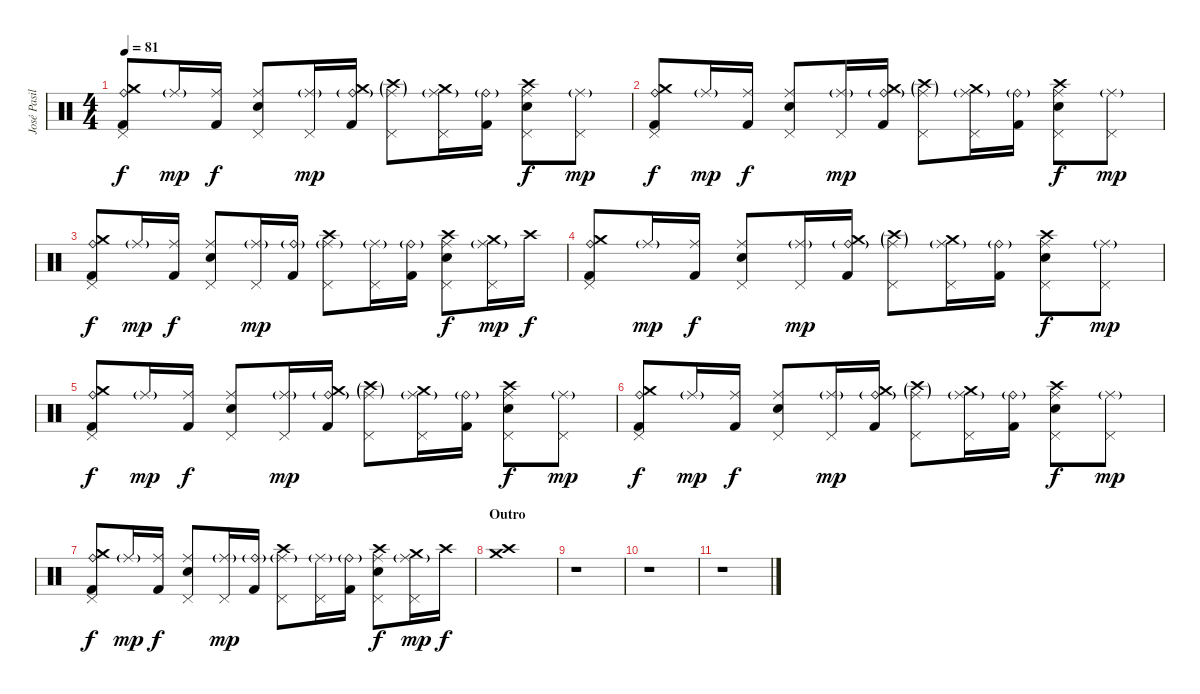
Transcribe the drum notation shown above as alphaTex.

\track ("José Pasillas [Drums]" "José Pasil") {instrument percussion}
\staff {score}
\articulation defaults
\ts (4 4)
\tempo 81
\clef neutral
\ks c
("Kick (hit) 2" "Crash medium (hit)" "Ride (bell)" "Pedal Hi-Hat (hit)").8{dy f} "Ride (middle)"{g}.16{dy mp} ("Kick (hit) 2" "Ride (middle)").16{dy f} ("Electric Snare (hit)" "Ride (middle)" "Pedal Hi-Hat (hit)").8 ("Ride (middle)"{g} "Pedal Hi-Hat (hit)").16{dy mp} ("Kick (hit) 2" "Crash medium (hit)" "Ride (bell)"{g}).16 ("Crash high (hit)"{g} "Ride (middle)"{g} "Pedal Hi-Hat (hit)").8 ("Crash medium (hit)" "Ride (middle)"{g} "Pedal Hi-Hat (hit)").16 ("Kick (hit) 2" "Ride (bell)"{g}).16 ("Electric Snare (hit)" "Crash high (hit)" "Ride (middle)" "Pedal Hi-Hat (hit)").8{dy f} ("Ride (middle)"{g} "Pedal Hi-Hat (hit)").8{dy mp} |
("Kick (hit) 2" "Crash medium (hit)" "Ride (bell)" "Pedal Hi-Hat (hit)").8{dy f} "Ride (middle)"{g}.16{dy mp} ("Kick (hit) 2" "Ride (middle)").16{dy f} ("Electric Snare (hit)" "Ride (middle)" "Pedal Hi-Hat (hit)").8 ("Ride (middle)"{g} "Pedal Hi-Hat (hit)").16{dy mp} ("Kick (hit) 2" "Crash medium (hit)" "Ride (bell)"{g}).16 ("Crash high (hit)"{g} "Ride (middle)"{g} "Pedal Hi-Hat (hit)").8 ("Crash medium (hit)" "Ride (middle)"{g} "Pedal Hi-Hat (hit)").16 ("Kick (hit) 2" "Ride (bell)"{g}).16 ("Electric Snare (hit)" "Crash high (hit)" "Ride (middle)" "Pedal Hi-Hat (hit)").8{dy f} ("Ride (middle)"{g} "Pedal Hi-Hat (hit)").8{dy mp} |
("Kick (hit) 2" "Crash medium (hit)" "Ride (bell)" "Pedal Hi-Hat (hit)").8{dy f} "Ride (middle)"{g}.16{dy mp} ("Kick (hit) 2" "Ride (middle)").16{dy f} ("Electric Snare (hit)" "Ride (middle)" "Pedal Hi-Hat (hit)").8 ("Ride (middle)"{g} "Pedal Hi-Hat (hit)").16{dy mp} ("Kick (hit) 2" "Ride (bell)"{g}).16 ("Crash high (hit)" "Ride (middle)"{g} "Pedal Hi-Hat (hit)").8 ("Ride (middle)"{g} "Pedal Hi-Hat (hit)").16 ("Kick (hit) 2" "Ride (bell)"{g}).16 ("Electric Snare (hit)" "Crash high (hit)" "Ride (middle)" "Pedal Hi-Hat (hit)").8{dy f} ("Crash medium (hit)" "Ride (middle)"{g} "Pedal Hi-Hat (hit)").16{dy mp} "Crash high (hit)".16{dy f} |
("Kick (hit) 2" "Crash medium (hit)" "Ride (bell)" "Pedal Hi-Hat (hit)").8 "Ride (middle)"{g}.16{dy mp} ("Kick (hit) 2" "Ride (middle)").16{dy f} ("Electric Snare (hit)" "Ride (middle)" "Pedal Hi-Hat (hit)").8 ("Ride (middle)"{g} "Pedal Hi-Hat (hit)").16{dy mp} ("Kick (hit) 2" "Crash medium (hit)" "Ride (bell)"{g}).16 ("Crash high (hit)"{g} "Ride (middle)"{g} "Pedal Hi-Hat (hit)").8 ("Crash medium (hit)" "Ride (middle)"{g} "Pedal Hi-Hat (hit)").16 ("Kick (hit) 2" "Ride (bell)"{g}).16 ("Electric Snare (hit)" "Crash high (hit)" "Ride (middle)" "Pedal Hi-Hat (hit)").8{dy f} ("Ride (middle)"{g} "Pedal Hi-Hat (hit)").8{dy mp} |
("Kick (hit) 2" "Crash medium (hit)" "Ride (bell)" "Pedal Hi-Hat (hit)").8{dy f} "Ride (middle)"{g}.16{dy mp} ("Kick (hit) 2" "Ride (middle)").16{dy f} ("Electric Snare (hit)" "Ride (middle)" "Pedal Hi-Hat (hit)").8 ("Ride (middle)"{g} "Pedal Hi-Hat (hit)").16{dy mp} ("Kick (hit) 2" "Crash medium (hit)" "Ride (bell)"{g}).16 ("Crash high (hit)"{g} "Ride (middle)"{g} "Pedal Hi-Hat (hit)").8 ("Crash medium (hit)" "Ride (middle)"{g} "Pedal Hi-Hat (hit)").16 ("Kick (hit) 2" "Ride (bell)"{g}).16 ("Electric Snare (hit)" "Crash high (hit)" "Ride (middle)" "Pedal Hi-Hat (hit)").8{dy f} ("Ride (middle)"{g} "Pedal Hi-Hat (hit)").8{dy mp} |
("Kick (hit) 2" "Crash medium (hit)" "Ride (bell)" "Pedal Hi-Hat (hit)").8{dy f} "Ride (middle)"{g}.16{dy mp} ("Kick (hit) 2" "Ride (middle)").16{dy f} ("Electric Snare (hit)" "Ride (middle)" "Pedal Hi-Hat (hit)").8 ("Ride (middle)"{g} "Pedal Hi-Hat (hit)").16{dy mp} ("Kick (hit) 2" "Crash medium (hit)" "Ride (bell)"{g}).16 ("Crash high (hit)"{g} "Ride (middle)"{g} "Pedal Hi-Hat (hit)").8 ("Crash medium (hit)" "Ride (middle)"{g} "Pedal Hi-Hat (hit)").16 ("Kick (hit) 2" "Ride (bell)"{g}).16 ("Electric Snare (hit)" "Crash high (hit)" "Ride (middle)" "Pedal Hi-Hat (hit)").8{dy f} ("Ride (middle)"{g} "Pedal Hi-Hat (hit)").8{dy mp} |
("Kick (hit) 2" "Crash medium (hit)" "Ride (bell)" "Pedal Hi-Hat (hit)").8{dy f} "Ride (middle)"{g}.16{dy mp} ("Kick (hit) 2" "Ride (middle)").16{dy f} ("Electric Snare (hit)" "Ride (middle)" "Pedal Hi-Hat (hit)").8 ("Ride (middle)"{g} "Pedal Hi-Hat (hit)").16{dy mp} ("Kick (hit) 2" "Ride (bell)"{g}).16 ("Crash high (hit)" "Ride (middle)"{g} "Pedal Hi-Hat (hit)").8 ("Ride (middle)"{g} "Pedal Hi-Hat (hit)").16 ("Kick (hit) 2" "Ride (bell)"{g}).16 ("Electric Snare (hit)" "Crash high (hit)" "Ride (middle)" "Pedal Hi-Hat (hit)").8{dy f} ("Crash medium (hit)" "Ride (middle)"{g} "Pedal Hi-Hat (hit)").16{dy mp} "Crash high (hit)".16{dy f} |
\section ("" "Outro")
("Crash medium (hit)" "Crash high (hit)").1 |
r.1 |
r.1 |
r.1
